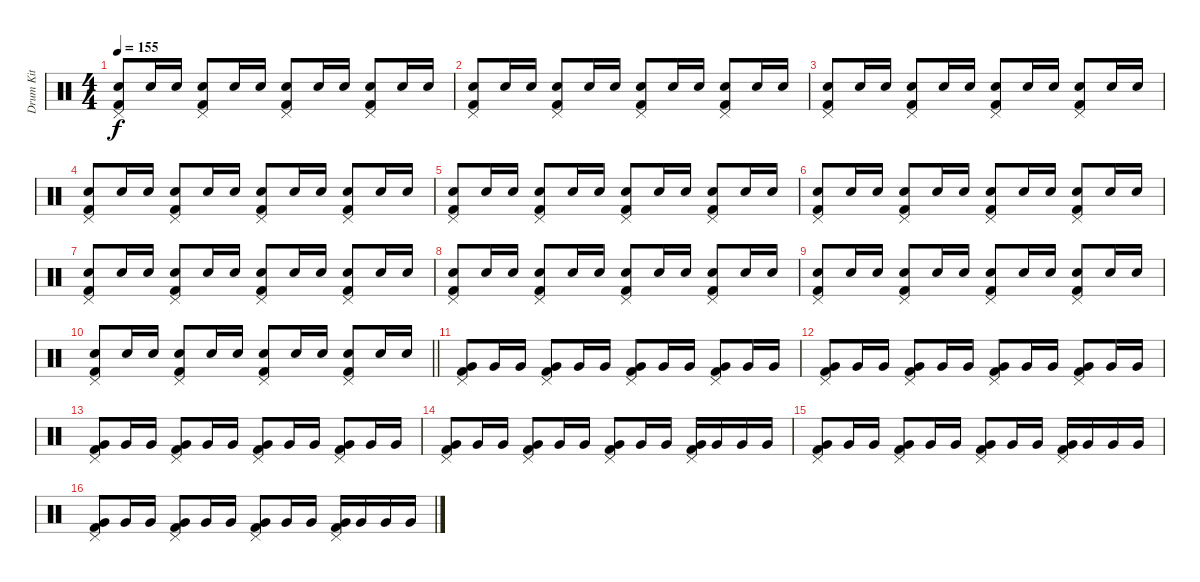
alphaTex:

\track ("Drum Kit" "Drum Kit") {instrument percussion}
\staff {score}
\articulation defaults
\ts (4 4)
\tempo 155
\clef neutral
\ks c
("Pedal Hi-Hat (hit)" "Snare (hit) 2" "Kick (hit) 2").8{dy f} "Snare (hit) 2".16 "Snare (hit) 2".16 ("Pedal Hi-Hat (hit)" "Snare (hit) 2" "Kick (hit) 2").8 "Snare (hit) 2".16 "Snare (hit) 2".16 ("Pedal Hi-Hat (hit)" "Snare (hit) 2" "Kick (hit) 2").8 "Snare (hit) 2".16 "Snare (hit) 2".16 ("Pedal Hi-Hat (hit)" "Snare (hit) 2" "Kick (hit) 2").8 "Snare (hit) 2".16 "Snare (hit) 2".16 |
("Pedal Hi-Hat (hit)" "Snare (hit) 2" "Kick (hit) 2").8 "Snare (hit) 2".16 "Snare (hit) 2".16 ("Pedal Hi-Hat (hit)" "Snare (hit) 2" "Kick (hit) 2").8 "Snare (hit) 2".16 "Snare (hit) 2".16 ("Pedal Hi-Hat (hit)" "Snare (hit) 2" "Kick (hit) 2").8 "Snare (hit) 2".16 "Snare (hit) 2".16 ("Pedal Hi-Hat (hit)" "Snare (hit) 2" "Kick (hit) 2").8 "Snare (hit) 2".16 "Snare (hit) 2".16 |
("Pedal Hi-Hat (hit)" "Snare (hit) 2" "Kick (hit) 2").8 "Snare (hit) 2".16 "Snare (hit) 2".16 ("Pedal Hi-Hat (hit)" "Snare (hit) 2" "Kick (hit) 2").8 "Snare (hit) 2".16 "Snare (hit) 2".16 ("Pedal Hi-Hat (hit)" "Snare (hit) 2" "Kick (hit) 2").8 "Snare (hit) 2".16 "Snare (hit) 2".16 ("Pedal Hi-Hat (hit)" "Snare (hit) 2" "Kick (hit) 2").8 "Snare (hit) 2".16 "Snare (hit) 2".16 |
("Pedal Hi-Hat (hit)" "Snare (hit) 2" "Kick (hit) 2").8 "Snare (hit) 2".16 "Snare (hit) 2".16 ("Pedal Hi-Hat (hit)" "Snare (hit) 2" "Kick (hit) 2").8 "Snare (hit) 2".16 "Snare (hit) 2".16 ("Pedal Hi-Hat (hit)" "Snare (hit) 2" "Kick (hit) 2").8 "Snare (hit) 2".16 "Snare (hit) 2".16 ("Pedal Hi-Hat (hit)" "Snare (hit) 2" "Kick (hit) 2").8 "Snare (hit) 2".16 "Snare (hit) 2".16 |
("Pedal Hi-Hat (hit)" "Snare (hit) 2" "Kick (hit) 2").8 "Snare (hit) 2".16 "Snare (hit) 2".16 ("Pedal Hi-Hat (hit)" "Snare (hit) 2" "Kick (hit) 2").8 "Snare (hit) 2".16 "Snare (hit) 2".16 ("Pedal Hi-Hat (hit)" "Snare (hit) 2" "Kick (hit) 2").8 "Snare (hit) 2".16 "Snare (hit) 2".16 ("Pedal Hi-Hat (hit)" "Snare (hit) 2" "Kick (hit) 2").8 "Snare (hit) 2".16 "Snare (hit) 2".16 |
("Pedal Hi-Hat (hit)" "Snare (hit) 2" "Kick (hit) 2").8 "Snare (hit) 2".16 "Snare (hit) 2".16 ("Pedal Hi-Hat (hit)" "Snare (hit) 2" "Kick (hit) 2").8 "Snare (hit) 2".16 "Snare (hit) 2".16 ("Pedal Hi-Hat (hit)" "Snare (hit) 2" "Kick (hit) 2").8 "Snare (hit) 2".16 "Snare (hit) 2".16 ("Pedal Hi-Hat (hit)" "Snare (hit) 2" "Kick (hit) 2").8 "Snare (hit) 2".16 "Snare (hit) 2".16 |
("Pedal Hi-Hat (hit)" "Snare (hit) 2" "Kick (hit) 2").8 "Snare (hit) 2".16 "Snare (hit) 2".16 ("Pedal Hi-Hat (hit)" "Snare (hit) 2" "Kick (hit) 2").8 "Snare (hit) 2".16 "Snare (hit) 2".16 ("Pedal Hi-Hat (hit)" "Snare (hit) 2" "Kick (hit) 2").8 "Snare (hit) 2".16 "Snare (hit) 2".16 ("Pedal Hi-Hat (hit)" "Snare (hit) 2" "Kick (hit) 2").8 "Snare (hit) 2".16 "Snare (hit) 2".16 |
("Pedal Hi-Hat (hit)" "Snare (hit) 2" "Kick (hit) 2").8 "Snare (hit) 2".16 "Snare (hit) 2".16 ("Pedal Hi-Hat (hit)" "Snare (hit) 2" "Kick (hit) 2").8 "Snare (hit) 2".16 "Snare (hit) 2".16 ("Pedal Hi-Hat (hit)" "Snare (hit) 2" "Kick (hit) 2").8 "Snare (hit) 2".16 "Snare (hit) 2".16 ("Pedal Hi-Hat (hit)" "Snare (hit) 2" "Kick (hit) 2").8 "Snare (hit) 2".16 "Snare (hit) 2".16 |
("Pedal Hi-Hat (hit)" "Snare (hit) 2" "Kick (hit) 2").8 "Snare (hit) 2".16 "Snare (hit) 2".16 ("Pedal Hi-Hat (hit)" "Snare (hit) 2" "Kick (hit) 2").8 "Snare (hit) 2".16 "Snare (hit) 2".16 ("Pedal Hi-Hat (hit)" "Snare (hit) 2" "Kick (hit) 2").8 "Snare (hit) 2".16 "Snare (hit) 2".16 ("Pedal Hi-Hat (hit)" "Snare (hit) 2" "Kick (hit) 2").8 "Snare (hit) 2".16 "Snare (hit) 2".16 |
\barLineRight lightlight
("Pedal Hi-Hat (hit)" "Snare (hit) 2" "Kick (hit) 2").8 "Snare (hit) 2".16 "Snare (hit) 2".16 ("Pedal Hi-Hat (hit)" "Snare (hit) 2" "Kick (hit) 2").8 "Snare (hit) 2".16 "Snare (hit) 2".16 ("Pedal Hi-Hat (hit)" "Snare (hit) 2" "Kick (hit) 2").8 "Snare (hit) 2".16 "Snare (hit) 2".16 ("Pedal Hi-Hat (hit)" "Snare (hit) 2" "Kick (hit) 2").8 "Snare (hit) 2".16 "Snare (hit) 2".16 |
("Pedal Hi-Hat (hit)" "Very Low Tom (hit)" "Kick (hit) 2").8{volume 12} "Very Low Tom (hit)".16 "Very Low Tom (hit)".16 ("Pedal Hi-Hat (hit)" "Very Low Tom (hit)" "Kick (hit) 2").8 "Very Low Tom (hit)".16 "Very Low Tom (hit)".16 ("Pedal Hi-Hat (hit)" "Very Low Tom (hit)" "Kick (hit) 2").8 "Very Low Tom (hit)".16 "Very Low Tom (hit)".16 ("Pedal Hi-Hat (hit)" "Very Low Tom (hit)" "Kick (hit) 2").8 "Very Low Tom (hit)".16 "Very Low Tom (hit)".16 |
("Pedal Hi-Hat (hit)" "Very Low Tom (hit)" "Kick (hit) 2").8 "Very Low Tom (hit)".16 "Very Low Tom (hit)".16 ("Pedal Hi-Hat (hit)" "Very Low Tom (hit)" "Kick (hit) 2").8 "Very Low Tom (hit)".16 "Very Low Tom (hit)".16 ("Pedal Hi-Hat (hit)" "Very Low Tom (hit)" "Kick (hit) 2").8 "Very Low Tom (hit)".16 "Very Low Tom (hit)".16 ("Pedal Hi-Hat (hit)" "Very Low Tom (hit)" "Kick (hit) 2").8 "Very Low Tom (hit)".16 "Very Low Tom (hit)".16 |
("Pedal Hi-Hat (hit)" "Very Low Tom (hit)" "Kick (hit) 2").8 "Very Low Tom (hit)".16 "Very Low Tom (hit)".16 ("Pedal Hi-Hat (hit)" "Very Low Tom (hit)" "Kick (hit) 2").8 "Very Low Tom (hit)".16 "Very Low Tom (hit)".16 ("Pedal Hi-Hat (hit)" "Very Low Tom (hit)" "Kick (hit) 2").8 "Very Low Tom (hit)".16 "Very Low Tom (hit)".16 ("Pedal Hi-Hat (hit)" "Very Low Tom (hit)" "Kick (hit) 2").8 "Very Low Tom (hit)".16 "Very Low Tom (hit)".16 |
("Pedal Hi-Hat (hit)" "Very Low Tom (hit)" "Kick (hit) 2").8{volume 15} "Very Low Tom (hit)".16 "Very Low Tom (hit)".16 ("Pedal Hi-Hat (hit)" "Very Low Tom (hit)" "Kick (hit) 2").8 "Very Low Tom (hit)".16 "Very Low Tom (hit)".16 ("Pedal Hi-Hat (hit)" "Very Low Tom (hit)" "Kick (hit) 2").8 "Very Low Tom (hit)".16 "Very Low Tom (hit)".16 ("Pedal Hi-Hat (hit)" "Very Low Tom (hit)" "Kick (hit) 2").16 "Very Low Tom (hit)".16 "Very Low Tom (hit)".16 "Very Low Tom (hit)".16 |
("Pedal Hi-Hat (hit)" "Very Low Tom (hit)" "Kick (hit) 2").8 "Very Low Tom (hit)".16 "Very Low Tom (hit)".16 ("Pedal Hi-Hat (hit)" "Very Low Tom (hit)" "Kick (hit) 2").8 "Very Low Tom (hit)".16 "Very Low Tom (hit)".16 ("Pedal Hi-Hat (hit)" "Very Low Tom (hit)" "Kick (hit) 2").8 "Very Low Tom (hit)".16 "Very Low Tom (hit)".16 ("Pedal Hi-Hat (hit)" "Very Low Tom (hit)" "Kick (hit) 2").16 "Very Low Tom (hit)".16 "Very Low Tom (hit)".16 "Very Low Tom (hit)".16 |
("Pedal Hi-Hat (hit)" "Very Low Tom (hit)" "Kick (hit) 2").8 "Very Low Tom (hit)".16 "Very Low Tom (hit)".16 ("Pedal Hi-Hat (hit)" "Very Low Tom (hit)" "Kick (hit) 2").8 "Very Low Tom (hit)".16 "Very Low Tom (hit)".16 ("Pedal Hi-Hat (hit)" "Very Low Tom (hit)" "Kick (hit) 2").8 "Very Low Tom (hit)".16 "Very Low Tom (hit)".16 ("Pedal Hi-Hat (hit)" "Very Low Tom (hit)" "Kick (hit) 2").16 "Very Low Tom (hit)".16 "Very Low Tom (hit)".16 "Very Low Tom (hit)".16
